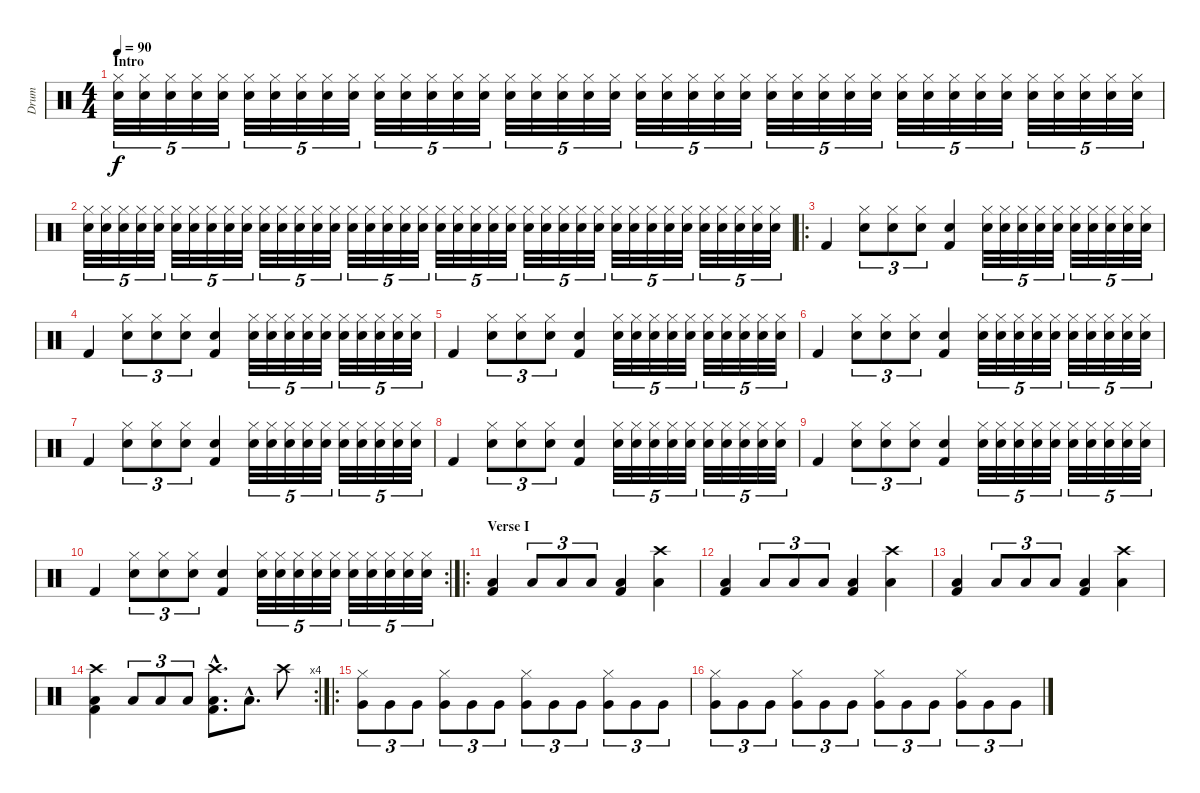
\track ("Drum" "Drum") {instrument percussion}
\staff {score}
\articulation defaults
\ts (4 4)
\section ("" "Intro")
\tempo 90
\clef neutral
\ks c
("Snare (hit) 2" "Hi-Hat (closed)").32{tu (5 4) dy f} ("Snare (hit) 2" "Hi-Hat (closed)").32{tu (5 4)} ("Snare (hit) 2" "Hi-Hat (closed)").32{tu (5 4)} ("Snare (hit) 2" "Hi-Hat (closed)").32{tu (5 4)} ("Snare (hit) 2" "Hi-Hat (closed)").32{tu (5 4)} ("Snare (hit) 2" "Hi-Hat (closed)").32{tu (5 4)} ("Snare (hit) 2" "Hi-Hat (closed)").32{tu (5 4)} ("Snare (hit) 2" "Hi-Hat (closed)").32{tu (5 4)} ("Snare (hit) 2" "Hi-Hat (closed)").32{tu (5 4)} ("Snare (hit) 2" "Hi-Hat (closed)").32{tu (5 4)} ("Snare (hit) 2" "Hi-Hat (closed)").32{tu (5 4)} ("Snare (hit) 2" "Hi-Hat (closed)").32{tu (5 4)} ("Snare (hit) 2" "Hi-Hat (closed)").32{tu (5 4)} ("Snare (hit) 2" "Hi-Hat (closed)").32{tu (5 4)} ("Snare (hit) 2" "Hi-Hat (closed)").32{tu (5 4)} ("Snare (hit) 2" "Hi-Hat (closed)").32{tu (5 4)} ("Snare (hit) 2" "Hi-Hat (closed)").32{tu (5 4)} ("Snare (hit) 2" "Hi-Hat (closed)").32{tu (5 4)} ("Snare (hit) 2" "Hi-Hat (closed)").32{tu (5 4)} ("Snare (hit) 2" "Hi-Hat (closed)").32{tu (5 4)} ("Snare (hit) 2" "Hi-Hat (closed)").32{tu (5 4)} ("Snare (hit) 2" "Hi-Hat (closed)").32{tu (5 4)} ("Snare (hit) 2" "Hi-Hat (closed)").32{tu (5 4)} ("Snare (hit) 2" "Hi-Hat (closed)").32{tu (5 4)} ("Snare (hit) 2" "Hi-Hat (closed)").32{tu (5 4)} ("Snare (hit) 2" "Hi-Hat (closed)").32{tu (5 4)} ("Snare (hit) 2" "Hi-Hat (closed)").32{tu (5 4)} ("Snare (hit) 2" "Hi-Hat (closed)").32{tu (5 4)} ("Snare (hit) 2" "Hi-Hat (closed)").32{tu (5 4)} ("Snare (hit) 2" "Hi-Hat (closed)").32{tu (5 4)} ("Snare (hit) 2" "Hi-Hat (closed)").32{tu (5 4)} ("Snare (hit) 2" "Hi-Hat (closed)").32{tu (5 4)} ("Snare (hit) 2" "Hi-Hat (closed)").32{tu (5 4)} ("Snare (hit) 2" "Hi-Hat (closed)").32{tu (5 4)} ("Snare (hit) 2" "Hi-Hat (closed)").32{tu (5 4)} ("Snare (hit) 2" "Hi-Hat (closed)").32{tu (5 4)} ("Snare (hit) 2" "Hi-Hat (closed)").32{tu (5 4)} ("Snare (hit) 2" "Hi-Hat (closed)").32{tu (5 4)} ("Snare (hit) 2" "Hi-Hat (closed)").32{tu (5 4)} ("Snare (hit) 2" "Hi-Hat (closed)").32{tu (5 4)} |
("Snare (hit) 2" "Hi-Hat (closed)").32{tu (5 4)} ("Snare (hit) 2" "Hi-Hat (closed)").32{tu (5 4)} ("Snare (hit) 2" "Hi-Hat (closed)").32{tu (5 4)} ("Snare (hit) 2" "Hi-Hat (closed)").32{tu (5 4)} ("Snare (hit) 2" "Hi-Hat (closed)").32{tu (5 4)} ("Snare (hit) 2" "Hi-Hat (closed)").32{tu (5 4)} ("Snare (hit) 2" "Hi-Hat (closed)").32{tu (5 4)} ("Snare (hit) 2" "Hi-Hat (closed)").32{tu (5 4)} ("Snare (hit) 2" "Hi-Hat (closed)").32{tu (5 4)} ("Snare (hit) 2" "Hi-Hat (closed)").32{tu (5 4)} ("Snare (hit) 2" "Hi-Hat (closed)").32{tu (5 4)} ("Snare (hit) 2" "Hi-Hat (closed)").32{tu (5 4)} ("Snare (hit) 2" "Hi-Hat (closed)").32{tu (5 4)} ("Snare (hit) 2" "Hi-Hat (closed)").32{tu (5 4)} ("Snare (hit) 2" "Hi-Hat (closed)").32{tu (5 4)} ("Snare (hit) 2" "Hi-Hat (closed)").32{tu (5 4)} ("Snare (hit) 2" "Hi-Hat (closed)").32{tu (5 4)} ("Snare (hit) 2" "Hi-Hat (closed)").32{tu (5 4)} ("Snare (hit) 2" "Hi-Hat (closed)").32{tu (5 4)} ("Snare (hit) 2" "Hi-Hat (closed)").32{tu (5 4)} ("Snare (hit) 2" "Hi-Hat (closed)").32{tu (5 4)} ("Snare (hit) 2" "Hi-Hat (closed)").32{tu (5 4)} ("Snare (hit) 2" "Hi-Hat (closed)").32{tu (5 4)} ("Snare (hit) 2" "Hi-Hat (closed)").32{tu (5 4)} ("Snare (hit) 2" "Hi-Hat (closed)").32{tu (5 4)} ("Snare (hit) 2" "Hi-Hat (closed)").32{tu (5 4)} ("Snare (hit) 2" "Hi-Hat (closed)").32{tu (5 4)} ("Snare (hit) 2" "Hi-Hat (closed)").32{tu (5 4)} ("Snare (hit) 2" "Hi-Hat (closed)").32{tu (5 4)} ("Snare (hit) 2" "Hi-Hat (closed)").32{tu (5 4)} ("Snare (hit) 2" "Hi-Hat (closed)").32{tu (5 4)} ("Snare (hit) 2" "Hi-Hat (closed)").32{tu (5 4)} ("Snare (hit) 2" "Hi-Hat (closed)").32{tu (5 4)} ("Snare (hit) 2" "Hi-Hat (closed)").32{tu (5 4)} ("Snare (hit) 2" "Hi-Hat (closed)").32{tu (5 4)} ("Snare (hit) 2" "Hi-Hat (closed)").32{tu (5 4)} ("Snare (hit) 2" "Hi-Hat (closed)").32{tu (5 4)} ("Snare (hit) 2" "Hi-Hat (closed)").32{tu (5 4)} ("Snare (hit) 2" "Hi-Hat (closed)").32{tu (5 4)} ("Snare (hit) 2" "Hi-Hat (closed)").32{tu (5 4)} |
\ro "Kick (hit) 2".4
("Snare (hit) 2" "Hi-Hat (closed)").8{tu (3 2)} ("Snare (hit) 2" "Hi-Hat (closed)").8{tu (3 2)} ("Snare (hit) 2" "Hi-Hat (closed)").8{tu (3 2)} ("Kick (hit) 2" "Snare (hit) 2").4 ("Snare (hit) 2" "Hi-Hat (closed)").32{tu (5 4)} ("Snare (hit) 2" "Hi-Hat (closed)").32{tu (5 4)} ("Snare (hit) 2" "Hi-Hat (closed)").32{tu (5 4)} ("Snare (hit) 2" "Hi-Hat (closed)").32{tu (5 4)} ("Snare (hit) 2" "Hi-Hat (closed)").32{tu (5 4)} ("Snare (hit) 2" "Hi-Hat (closed)").32{tu (5 4)} ("Snare (hit) 2" "Hi-Hat (closed)").32{tu (5 4)} ("Snare (hit) 2" "Hi-Hat (closed)").32{tu (5 4)} ("Snare (hit) 2" "Hi-Hat (closed)").32{tu (5 4)} ("Snare (hit) 2" "Hi-Hat (closed)").32{tu (5 4)} |
"Kick (hit) 2".4 ("Snare (hit) 2" "Hi-Hat (closed)").8{tu (3 2)} ("Snare (hit) 2" "Hi-Hat (closed)").8{tu (3 2)} ("Snare (hit) 2" "Hi-Hat (closed)").8{tu (3 2)} ("Kick (hit) 2" "Snare (hit) 2").4 ("Snare (hit) 2" "Hi-Hat (closed)").32{tu (5 4)} ("Snare (hit) 2" "Hi-Hat (closed)").32{tu (5 4)} ("Snare (hit) 2" "Hi-Hat (closed)").32{tu (5 4)} ("Snare (hit) 2" "Hi-Hat (closed)").32{tu (5 4)} ("Snare (hit) 2" "Hi-Hat (closed)").32{tu (5 4)} ("Snare (hit) 2" "Hi-Hat (closed)").32{tu (5 4)} ("Snare (hit) 2" "Hi-Hat (closed)").32{tu (5 4)} ("Snare (hit) 2" "Hi-Hat (closed)").32{tu (5 4)} ("Snare (hit) 2" "Hi-Hat (closed)").32{tu (5 4)} ("Snare (hit) 2" "Hi-Hat (closed)").32{tu (5 4)} |
"Kick (hit) 2".4 ("Snare (hit) 2" "Hi-Hat (closed)").8{tu (3 2)} ("Snare (hit) 2" "Hi-Hat (closed)").8{tu (3 2)} ("Snare (hit) 2" "Hi-Hat (closed)").8{tu (3 2)} ("Kick (hit) 2" "Snare (hit) 2").4 ("Snare (hit) 2" "Hi-Hat (closed)").32{tu (5 4)} ("Snare (hit) 2" "Hi-Hat (closed)").32{tu (5 4)} ("Snare (hit) 2" "Hi-Hat (closed)").32{tu (5 4)} ("Snare (hit) 2" "Hi-Hat (closed)").32{tu (5 4)} ("Snare (hit) 2" "Hi-Hat (closed)").32{tu (5 4)} ("Snare (hit) 2" "Hi-Hat (closed)").32{tu (5 4)} ("Snare (hit) 2" "Hi-Hat (closed)").32{tu (5 4)} ("Snare (hit) 2" "Hi-Hat (closed)").32{tu (5 4)} ("Snare (hit) 2" "Hi-Hat (closed)").32{tu (5 4)} ("Snare (hit) 2" "Hi-Hat (closed)").32{tu (5 4)} |
"Kick (hit) 2".4 ("Snare (hit) 2" "Hi-Hat (closed)").8{tu (3 2)} ("Snare (hit) 2" "Hi-Hat (closed)").8{tu (3 2)} ("Snare (hit) 2" "Hi-Hat (closed)").8{tu (3 2)} ("Kick (hit) 2" "Snare (hit) 2").4 ("Snare (hit) 2" "Hi-Hat (closed)").32{tu (5 4)} ("Snare (hit) 2" "Hi-Hat (closed)").32{tu (5 4)} ("Snare (hit) 2" "Hi-Hat (closed)").32{tu (5 4)} ("Snare (hit) 2" "Hi-Hat (closed)").32{tu (5 4)} ("Snare (hit) 2" "Hi-Hat (closed)").32{tu (5 4)} ("Snare (hit) 2" "Hi-Hat (closed)").32{tu (5 4)} ("Snare (hit) 2" "Hi-Hat (closed)").32{tu (5 4)} ("Snare (hit) 2" "Hi-Hat (closed)").32{tu (5 4)} ("Snare (hit) 2" "Hi-Hat (closed)").32{tu (5 4)} ("Snare (hit) 2" "Hi-Hat (closed)").32{tu (5 4)} |
"Kick (hit) 2".4 ("Snare (hit) 2" "Hi-Hat (closed)").8{tu (3 2)} ("Snare (hit) 2" "Hi-Hat (closed)").8{tu (3 2)} ("Snare (hit) 2" "Hi-Hat (closed)").8{tu (3 2)} ("Kick (hit) 2" "Snare (hit) 2").4 ("Snare (hit) 2" "Hi-Hat (closed)").32{tu (5 4)} ("Snare (hit) 2" "Hi-Hat (closed)").32{tu (5 4)} ("Snare (hit) 2" "Hi-Hat (closed)").32{tu (5 4)} ("Snare (hit) 2" "Hi-Hat (closed)").32{tu (5 4)} ("Snare (hit) 2" "Hi-Hat (closed)").32{tu (5 4)} ("Snare (hit) 2" "Hi-Hat (closed)").32{tu (5 4)} ("Snare (hit) 2" "Hi-Hat (closed)").32{tu (5 4)} ("Snare (hit) 2" "Hi-Hat (closed)").32{tu (5 4)} ("Snare (hit) 2" "Hi-Hat (closed)").32{tu (5 4)} ("Snare (hit) 2" "Hi-Hat (closed)").32{tu (5 4)} |
"Kick (hit) 2".4 ("Snare (hit) 2" "Hi-Hat (closed)").8{tu (3 2)} ("Snare (hit) 2" "Hi-Hat (closed)").8{tu (3 2)} ("Snare (hit) 2" "Hi-Hat (closed)").8{tu (3 2)} ("Kick (hit) 2" "Snare (hit) 2").4 ("Snare (hit) 2" "Hi-Hat (closed)").32{tu (5 4)} ("Snare (hit) 2" "Hi-Hat (closed)").32{tu (5 4)} ("Snare (hit) 2" "Hi-Hat (closed)").32{tu (5 4)} ("Snare (hit) 2" "Hi-Hat (closed)").32{tu (5 4)} ("Snare (hit) 2" "Hi-Hat (closed)").32{tu (5 4)} ("Snare (hit) 2" "Hi-Hat (closed)").32{tu (5 4)} ("Snare (hit) 2" "Hi-Hat (closed)").32{tu (5 4)} ("Snare (hit) 2" "Hi-Hat (closed)").32{tu (5 4)} ("Snare (hit) 2" "Hi-Hat (closed)").32{tu (5 4)} ("Snare (hit) 2" "Hi-Hat (closed)").32{tu (5 4)} |
"Kick (hit) 2".4 ("Snare (hit) 2" "Hi-Hat (closed)").8{tu (3 2)} ("Snare (hit) 2" "Hi-Hat (closed)").8{tu (3 2)} ("Snare (hit) 2" "Hi-Hat (closed)").8{tu (3 2)} ("Kick (hit) 2" "Snare (hit) 2").4 ("Snare (hit) 2" "Hi-Hat (closed)").32{tu (5 4)} ("Snare (hit) 2" "Hi-Hat (closed)").32{tu (5 4)} ("Snare (hit) 2" "Hi-Hat (closed)").32{tu (5 4)} ("Snare (hit) 2" "Hi-Hat (closed)").32{tu (5 4)} ("Snare (hit) 2" "Hi-Hat (closed)").32{tu (5 4)} ("Snare (hit) 2" "Hi-Hat (closed)").32{tu (5 4)} ("Snare (hit) 2" "Hi-Hat (closed)").32{tu (5 4)} ("Snare (hit) 2" "Hi-Hat (closed)").32{tu (5 4)} ("Snare (hit) 2" "Hi-Hat (closed)").32{tu (5 4)} ("Snare (hit) 2" "Hi-Hat (closed)").32{tu (5 4)} |
\rc 2 "Kick (hit) 2".4
("Snare (hit) 2" "Hi-Hat (closed)").8{tu (3 2)} ("Snare (hit) 2" "Hi-Hat (closed)").8{tu (3 2)} ("Snare (hit) 2" "Hi-Hat (closed)").8{tu (3 2)} ("Kick (hit) 2" "Snare (hit) 2").4 ("Snare (hit) 2" "Hi-Hat (closed)").32{tu (5 4)} ("Snare (hit) 2" "Hi-Hat (closed)").32{tu (5 4)} ("Snare (hit) 2" "Hi-Hat (closed)").32{tu (5 4)} ("Snare (hit) 2" "Hi-Hat (closed)").32{tu (5 4)} ("Snare (hit) 2" "Hi-Hat (closed)").32{tu (5 4)} ("Snare (hit) 2" "Hi-Hat (closed)").32{tu (5 4)} ("Snare (hit) 2" "Hi-Hat (closed)").32{tu (5 4)} ("Snare (hit) 2" "Hi-Hat (closed)").32{tu (5 4)} ("Snare (hit) 2" "Hi-Hat (closed)").32{tu (5 4)} ("Snare (hit) 2" "Hi-Hat (closed)").32{tu (5 4)} |
\ro
\section ("" "Verse I")
("Kick (hit) 2" "Low Floor Tom (hit)").4 "Low Floor Tom (hit)".8{tu (3 2)} "Low Floor Tom (hit)".8{tu (3 2)} "Low Floor Tom (hit)".8{tu (3 2)} ("Kick (hit) 2" "Low Floor Tom (hit)").4 ("Low Floor Tom (hit)" "Crash high (hit)").4 |
("Kick (hit) 2" "Low Floor Tom (hit)").4 "Low Floor Tom (hit)".8{tu (3 2)} "Low Floor Tom (hit)".8{tu (3 2)} "Low Floor Tom (hit)".8{tu (3 2)} ("Kick (hit) 2" "Low Floor Tom (hit)").4 ("Low Floor Tom (hit)" "Crash high (hit)").4 |
("Kick (hit) 2" "Low Floor Tom (hit)").4 "Low Floor Tom (hit)".8{tu (3 2)} "Low Floor Tom (hit)".8{tu (3 2)} "Low Floor Tom (hit)".8{tu (3 2)} ("Kick (hit) 2" "Low Floor Tom (hit)").4 ("Low Floor Tom (hit)" "Crash high (hit)").4 |
\rc 4
("Kick (hit) 2" "Low Floor Tom (hit)" "Crash high (hit)").4 "Low Floor Tom (hit)".8{tu (3 2)} "Low Floor Tom (hit)".8{tu (3 2)} "Low Floor Tom (hit)".8{tu (3 2)} ("Kick (hit) 2"{hac} "Low Floor Tom (hit)"{hac} "Crash high (hit)"{hac}).8{d} "Low Floor Tom (hit)"{hac}.8{d} "Crash high (hit)".8 |
\ro
("Very Low Tom (hit)" "Hi-Hat (closed)").8{tu (3 2)} "Very Low Tom (hit)".8{tu (3 2)} "Very Low Tom (hit)".8{tu (3 2)} ("Very Low Tom (hit)" "Hi-Hat (closed)").8{tu (3 2)} "Very Low Tom (hit)".8{tu (3 2)} "Very Low Tom (hit)".8{tu (3 2)} ("Very Low Tom (hit)" "Hi-Hat (closed)").8{tu (3 2)} "Very Low Tom (hit)".8{tu (3 2)} "Very Low Tom (hit)".8{tu (3 2)} ("Very Low Tom (hit)" "Hi-Hat (closed)").8{tu (3 2)} "Very Low Tom (hit)".8{tu (3 2)} "Very Low Tom (hit)".8{tu (3 2)} |
("Very Low Tom (hit)" "Hi-Hat (closed)").8{tu (3 2)} "Very Low Tom (hit)".8{tu (3 2)} "Very Low Tom (hit)".8{tu (3 2)} ("Very Low Tom (hit)" "Hi-Hat (closed)").8{tu (3 2)} "Very Low Tom (hit)".8{tu (3 2)} "Very Low Tom (hit)".8{tu (3 2)} ("Very Low Tom (hit)" "Hi-Hat (closed)").8{tu (3 2)} "Very Low Tom (hit)".8{tu (3 2)} "Very Low Tom (hit)".8{tu (3 2)} ("Very Low Tom (hit)" "Hi-Hat (closed)").8{tu (3 2)} "Very Low Tom (hit)".8{tu (3 2)} "Very Low Tom (hit)".8{tu (3 2)}
